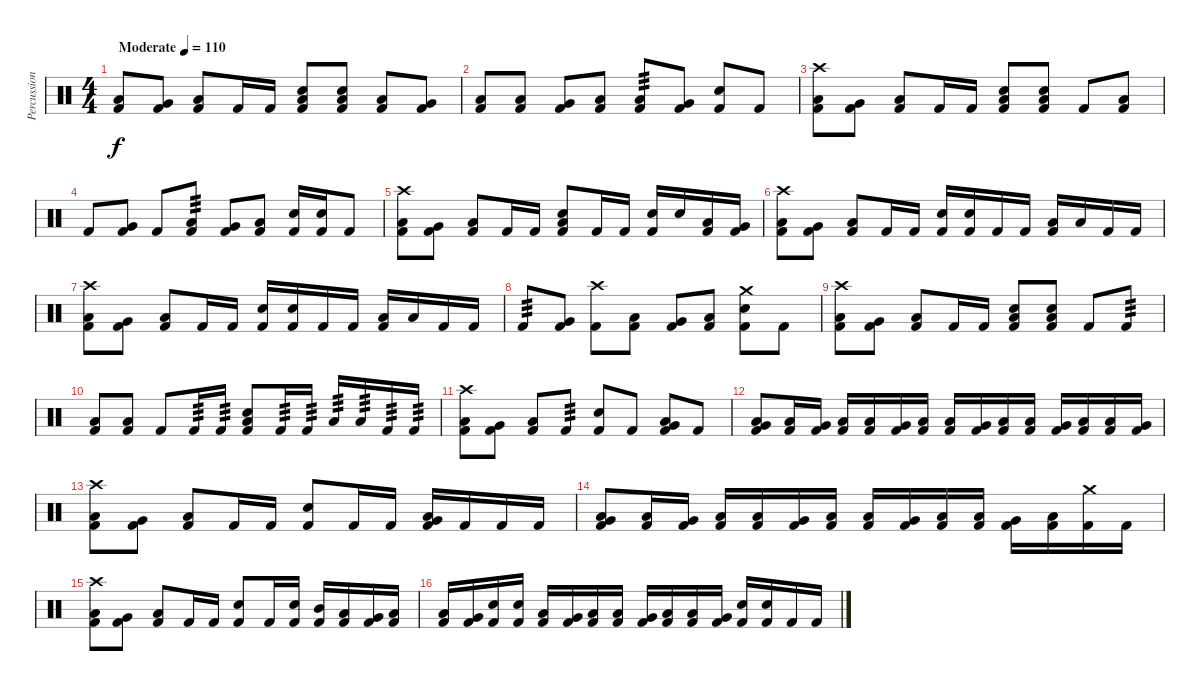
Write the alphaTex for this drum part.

\track ("Percussion" "Percussion") {instrument percussion}
\staff {score}
\articulation defaults
\ts (4 4)
\tempo (110 "Moderate")
\clef neutral
\ks c
("Low Tom (hit)" "Kick (hit) 2").8{dy f} ("Very Low Tom (hit)" "Kick (hit) 2").8 ("Low Floor Tom (hit)" "Kick (hit) 2").8 "Kick (hit) 2".16 "Kick (hit) 2".16 ("Electric Snare (hit)" "Low Floor Tom (hit)" "Kick (hit) 2").8 ("Electric Snare (hit)" "Low Floor Tom (hit)" "Kick (hit) 2").8 ("Low Tom (hit)" "Kick (hit) 2").8 ("Very Low Tom (hit)" "Kick (hit) 2").8 |
("Low Floor Tom (hit)" "Kick (hit) 2").8 ("Low Tom (hit)" "Kick (hit) 2").8 ("Very Low Tom (hit)" "Kick (hit) 2").8 ("Low Floor Tom (hit)" "Kick (hit) 2").8 ("Low Tom (hit)" "Kick (hit) 2").8{tp 3} ("Very Low Tom (hit)" "Kick (hit) 2").8 ("Electric Snare (hit)" "Kick (hit) 2").8 "Kick (hit) 2".8 |
("Crash high (hit)" "Low Tom (hit)" "Kick (hit) 2").8 ("Very Low Tom (hit)" "Kick (hit) 2").8 ("Low Floor Tom (hit)" "Kick (hit) 2").8 "Kick (hit) 2".16 "Kick (hit) 2".16 ("Electric Snare (hit)" "Low Floor Tom (hit)" "Kick (hit) 2").8 ("Electric Snare (hit)" "Low Floor Tom (hit)" "Kick (hit) 2").8 "Kick (hit) 2".8 ("Low Tom (hit)" "Kick (hit) 2").8 |
"Kick (hit) 2".8 ("Very Low Tom (hit)" "Kick (hit) 2").8 "Kick (hit) 2".8 ("Low Tom (hit)" "Kick (hit) 2").8{tp 3} ("Very Low Tom (hit)" "Kick (hit) 2").8 ("Low Floor Tom (hit)" "Kick (hit) 2").8 ("Electric Snare (hit)" "Kick (hit) 2").16 ("Electric Snare (hit)" "Kick (hit) 2").16 "Kick (hit) 2".8 |
("Crash high (hit)" "Low Tom (hit)" "Kick (hit) 2").8 ("Very Low Tom (hit)" "Kick (hit) 2").8 ("Low Floor Tom (hit)" "Kick (hit) 2").8 "Kick (hit) 2".16 "Kick (hit) 2".16 ("Electric Snare (hit)" "Low Floor Tom (hit)" "Kick (hit) 2").8 "Kick (hit) 2".16 "Kick (hit) 2".16 ("Electric Snare (hit)" "Kick (hit) 2").16 "Electric Snare (hit)".16 ("Low Tom (hit)" "Kick (hit) 2").16 ("Very Low Tom (hit)" "Kick (hit) 2").16 |
("Crash high (hit)" "Low Tom (hit)" "Kick (hit) 2").8 ("Very Low Tom (hit)" "Kick (hit) 2").8 ("Low Floor Tom (hit)" "Kick (hit) 2").8 "Kick (hit) 2".16 "Kick (hit) 2".16 ("Electric Snare (hit)" "Kick (hit) 2").16 ("Electric Snare (hit)" "Kick (hit) 2").16 "Kick (hit) 2".16 "Kick (hit) 2".16 ("Low Tom (hit)" "Kick (hit) 2").16 "Low Tom (hit)".16 "Kick (hit) 2".16 "Kick (hit) 2".16 |
("Crash high (hit)" "Low Tom (hit)" "Kick (hit) 2").8 ("Very Low Tom (hit)" "Kick (hit) 2").8 ("Low Floor Tom (hit)" "Kick (hit) 2").8 "Kick (hit) 2".16 "Kick (hit) 2".16 ("Electric Snare (hit)" "Kick (hit) 2").16 ("Electric Snare (hit)" "Kick (hit) 2").16 "Kick (hit) 2".16 "Kick (hit) 2".16 ("Low Tom (hit)" "Kick (hit) 2").16 "Low Tom (hit)".16 "Kick (hit) 2".16 "Kick (hit) 2".16 |
"Kick (hit) 2".8{tp 3} ("Very Low Tom (hit)" "Kick (hit) 2").8 ("Crash high (hit)" "Kick (hit) 2").8 ("Low Tom (hit)" "Kick (hit) 2").8 ("Very Low Tom (hit)" "Kick (hit) 2").8 ("Low Floor Tom (hit)" "Kick (hit) 2").8 ("Crash medium (hit)" "Electric Snare (hit)" "Kick (hit) 2").8 "Kick (hit) 2".8 |
("Crash high (hit)" "Low Tom (hit)" "Kick (hit) 2").8 ("Very Low Tom (hit)" "Kick (hit) 2").8 ("Low Floor Tom (hit)" "Kick (hit) 2").8 "Kick (hit) 2".16 "Kick (hit) 2".16 ("Electric Snare (hit)" "Low Floor Tom (hit)" "Kick (hit) 2").8 ("Electric Snare (hit)" "Low Floor Tom (hit)" "Kick (hit) 2").8 "Kick (hit) 2".8 "Kick (hit) 2".8{tp 3} |
("Low Floor Tom (hit)" "Kick (hit) 2").8 ("Low Floor Tom (hit)" "Kick (hit) 2").8 "Kick (hit) 2".8 "Kick (hit) 2".16{tp 3} "Kick (hit) 2".16{tp 3} ("Electric Snare (hit)" "Low Floor Tom (hit)" "Kick (hit) 2").8 "Kick (hit) 2".16{tp 3} "Kick (hit) 2".16{tp 3} "Low Tom (hit)".16{tp 3} "Low Tom (hit)".16{tp 3} "Kick (hit) 2".16{tp 3} "Kick (hit) 2".16{tp 3} |
("Crash high (hit)" "Low Tom (hit)" "Kick (hit) 2").8 ("Very Low Tom (hit)" "Kick (hit) 2").8 ("Low Floor Tom (hit)" "Kick (hit) 2").8 "Kick (hit) 2".8{tp 3} ("Electric Snare (hit)" "Kick (hit) 2").8 "Kick (hit) 2".8 ("Very Low Tom (hit)" "Low Tom (hit)" "Kick (hit) 2").8 "Kick (hit) 2".8 |
("Very Low Tom (hit)" "Low Floor Tom (hit)" "Kick (hit) 2").8 ("Low Tom (hit)" "Kick (hit) 2").16 ("Very Low Tom (hit)" "Kick (hit) 2").16 ("Low Floor Tom (hit)" "Kick (hit) 2").16 ("Low Tom (hit)" "Kick (hit) 2").16 ("Very Low Tom (hit)" "Kick (hit) 2").16 ("Low Floor Tom (hit)" "Kick (hit) 2").16 ("Low Tom (hit)" "Kick (hit) 2").16 ("Very Low Tom (hit)" "Kick (hit) 2").16 ("Low Floor Tom (hit)" "Kick (hit) 2").16 ("Low Tom (hit)" "Kick (hit) 2").16 ("Very Low Tom (hit)" "Kick (hit) 2").16 ("Low Floor Tom (hit)" "Kick (hit) 2").16 ("Low Tom (hit)" "Kick (hit) 2").16 ("Very Low Tom (hit)" "Kick (hit) 2").16 |
("Crash high (hit)" "Low Tom (hit)" "Kick (hit) 2").8 ("Very Low Tom (hit)" "Kick (hit) 2").8 ("Low Floor Tom (hit)" "Kick (hit) 2").8 "Kick (hit) 2".16 "Kick (hit) 2".16 ("Electric Snare (hit)" "Kick (hit) 2").8 "Kick (hit) 2".16 "Kick (hit) 2".16 ("Very Low Tom (hit)" "Low Tom (hit)" "Kick (hit) 2").16 "Kick (hit) 2".16 "Kick (hit) 2".16 "Kick (hit) 2".16 |
("Very Low Tom (hit)" "Low Floor Tom (hit)" "Kick (hit) 2").8 ("Low Tom (hit)" "Kick (hit) 2").16 ("Very Low Tom (hit)" "Kick (hit) 2").16 ("Low Floor Tom (hit)" "Kick (hit) 2").16 ("Low Tom (hit)" "Kick (hit) 2").16 ("Very Low Tom (hit)" "Kick (hit) 2").16 ("Low Floor Tom (hit)" "Kick (hit) 2").16 ("Low Tom (hit)" "Kick (hit) 2").16 ("Very Low Tom (hit)" "Kick (hit) 2").16 ("Low Floor Tom (hit)" "Kick (hit) 2").16 ("Low Tom (hit)" "Kick (hit) 2").16 ("Very Low Tom (hit)" "Kick (hit) 2").16 ("Low Floor Tom (hit)" "Kick (hit) 2").16 ("Crash medium (hit)" "Kick (hit) 2").16 "Kick (hit) 2".16 |
("Crash high (hit)" "Low Tom (hit)" "Kick (hit) 2").8 ("Very Low Tom (hit)" "Kick (hit) 2").8 ("Low Floor Tom (hit)" "Kick (hit) 2").8 "Kick (hit) 2".16 "Kick (hit) 2".16 ("Electric Snare (hit)" "Kick (hit) 2").8 "Kick (hit) 2".16 ("Electric Snare (hit)" "Kick (hit) 2").16 ("Mid Tom (hit)" "Kick (hit) 2").16 ("Low Tom (hit)" "Kick (hit) 2").16 ("Very Low Tom (hit)" "Kick (hit) 2").16 ("Low Floor Tom (hit)" "Kick (hit) 2").16 |
("Low Tom (hit)" "Kick (hit) 2").16 ("Very Low Tom (hit)" "Kick (hit) 2").16 ("Electric Snare (hit)" "Kick (hit) 2").16 ("Electric Snare (hit)" "Kick (hit) 2").16 ("Low Tom (hit)" "Kick (hit) 2").16 ("Very Low Tom (hit)" "Kick (hit) 2").16 ("Low Floor Tom (hit)" "Kick (hit) 2").16 ("Low Tom (hit)" "Kick (hit) 2").16 ("Very Low Tom (hit)" "Kick (hit) 2").16 ("Low Floor Tom (hit)" "Kick (hit) 2").16 ("Low Tom (hit)" "Kick (hit) 2").16 ("Very Low Tom (hit)" "Kick (hit) 2").16 ("Electric Snare (hit)" "Kick (hit) 2").16 ("Electric Snare (hit)" "Kick (hit) 2").16 "Kick (hit) 2".16 "Kick (hit) 2".16
